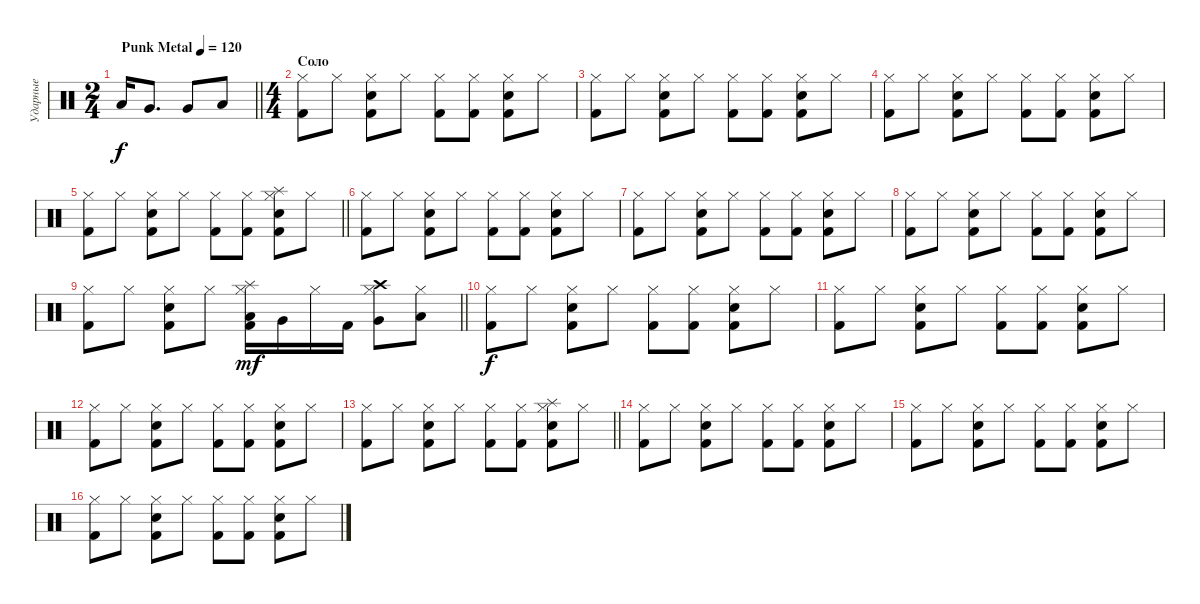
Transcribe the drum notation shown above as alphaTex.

\track ("Ударные" "Ударные") {instrument percussion}
\staff {score}
\articulation defaults
\ts (2 4)
\tempo (120 "Punk Metal")
\clef neutral
\barLineRight lightlight
\ks c "Low Tom (hit)".16{dy f} "Very Low Tom (hit)".8{d} "Very Low Tom (hit)".8 "Low Floor Tom (hit)".8
|
\ts (4 4)
\section ("" "Соло")
("Hi-Hat (closed)" "Kick (hit) 2").8 "Hi-Hat (closed)".8 ("Hi-Hat (closed)" "Kick (hit) 2" "Electric Snare (hit)").8 "Hi-Hat (closed)".8 ("Hi-Hat (closed)" "Kick (hit) 2").8 ("Hi-Hat (closed)" "Kick (hit) 2").8 ("Hi-Hat (closed)" "Kick (hit) 2" "Electric Snare (hit)").8 "Hi-Hat (closed)".8 |
("Hi-Hat (closed)" "Kick (hit) 2").8 "Hi-Hat (closed)".8 ("Hi-Hat (closed)" "Kick (hit) 2" "Electric Snare (hit)").8 "Hi-Hat (closed)".8 ("Hi-Hat (closed)" "Kick (hit) 2").8 ("Hi-Hat (closed)" "Kick (hit) 2").8 ("Hi-Hat (closed)" "Kick (hit) 2" "Electric Snare (hit)").8 "Hi-Hat (closed)".8 |
("Hi-Hat (closed)" "Kick (hit) 2").8 "Hi-Hat (closed)".8 ("Hi-Hat (closed)" "Kick (hit) 2" "Electric Snare (hit)").8 "Hi-Hat (closed)".8 ("Hi-Hat (closed)" "Kick (hit) 2").8 ("Hi-Hat (closed)" "Kick (hit) 2").8 ("Hi-Hat (closed)" "Kick (hit) 2" "Electric Snare (hit)").8 "Hi-Hat (closed)".8 |
\barLineRight lightlight
("Hi-Hat (closed)" "Kick (hit) 2").8 "Hi-Hat (closed)".8 ("Hi-Hat (closed)" "Kick (hit) 2" "Electric Snare (hit)").8 "Hi-Hat (closed)".8 ("Hi-Hat (closed)" "Kick (hit) 2").8 ("Hi-Hat (closed)" "Kick (hit) 2").8 ("Hi-Hat (closed)" "Kick (hit) 2" "Electric Snare (hit)" "Splash (hit)").8 "Hi-Hat (closed)".8 |
("Hi-Hat (closed)" "Kick (hit) 2").8 "Hi-Hat (closed)".8 ("Hi-Hat (closed)" "Kick (hit) 2" "Electric Snare (hit)").8 "Hi-Hat (closed)".8 ("Hi-Hat (closed)" "Kick (hit) 2").8 ("Hi-Hat (closed)" "Kick (hit) 2").8 ("Hi-Hat (closed)" "Kick (hit) 2" "Electric Snare (hit)").8 "Hi-Hat (closed)".8 |
("Hi-Hat (closed)" "Kick (hit) 2").8 "Hi-Hat (closed)".8 ("Hi-Hat (closed)" "Kick (hit) 2" "Electric Snare (hit)").8 "Hi-Hat (closed)".8 ("Hi-Hat (closed)" "Kick (hit) 2").8 ("Hi-Hat (closed)" "Kick (hit) 2").8 ("Hi-Hat (closed)" "Kick (hit) 2" "Electric Snare (hit)").8 "Hi-Hat (closed)".8 |
("Hi-Hat (closed)" "Kick (hit) 2").8 "Hi-Hat (closed)".8 ("Hi-Hat (closed)" "Kick (hit) 2" "Electric Snare (hit)").8 "Hi-Hat (closed)".8 ("Hi-Hat (closed)" "Kick (hit) 2").8 ("Hi-Hat (closed)" "Kick (hit) 2").8 ("Hi-Hat (closed)" "Kick (hit) 2" "Electric Snare (hit)").8 "Hi-Hat (closed)".8 |
\barLineRight lightlight
("Hi-Hat (closed)" "Kick (hit) 2").8 "Hi-Hat (closed)".8 ("Hi-Hat (closed)" "Kick (hit) 2" "Electric Snare (hit)").8 "Hi-Hat (closed)".8 ("Low Tom (hit)" "Hi-Hat (closed)" "Kick (hit) 2" "Splash (hit)").16{dy mf} "Very Low Tom (hit)".16 "Hi-Hat (closed)".16 "Kick (hit) 2".16 ("Very Low Tom (hit)" "Hi-Hat (closed)" "Crash high (hit)").8 ("Low Floor Tom (hit)" "Hi-Hat (closed)").8 |
("Hi-Hat (closed)" "Kick (hit) 2").8{dy f} "Hi-Hat (closed)".8 ("Hi-Hat (closed)" "Kick (hit) 2" "Electric Snare (hit)").8 "Hi-Hat (closed)".8 ("Hi-Hat (closed)" "Kick (hit) 2").8 ("Hi-Hat (closed)" "Kick (hit) 2").8 ("Hi-Hat (closed)" "Kick (hit) 2" "Electric Snare (hit)").8 "Hi-Hat (closed)".8 |
("Hi-Hat (closed)" "Kick (hit) 2").8 "Hi-Hat (closed)".8 ("Hi-Hat (closed)" "Kick (hit) 2" "Electric Snare (hit)").8 "Hi-Hat (closed)".8 ("Hi-Hat (closed)" "Kick (hit) 2").8 ("Hi-Hat (closed)" "Kick (hit) 2").8 ("Hi-Hat (closed)" "Kick (hit) 2" "Electric Snare (hit)").8 "Hi-Hat (closed)".8 |
("Hi-Hat (closed)" "Kick (hit) 2").8 "Hi-Hat (closed)".8 ("Hi-Hat (closed)" "Kick (hit) 2" "Electric Snare (hit)").8 "Hi-Hat (closed)".8 ("Hi-Hat (closed)" "Kick (hit) 2").8 ("Hi-Hat (closed)" "Kick (hit) 2").8 ("Hi-Hat (closed)" "Kick (hit) 2" "Electric Snare (hit)").8 "Hi-Hat (closed)".8 |
\barLineRight lightlight
("Hi-Hat (closed)" "Kick (hit) 2").8 "Hi-Hat (closed)".8 ("Hi-Hat (closed)" "Kick (hit) 2" "Electric Snare (hit)").8 "Hi-Hat (closed)".8 ("Hi-Hat (closed)" "Kick (hit) 2").8 ("Hi-Hat (closed)" "Kick (hit) 2").8 ("Hi-Hat (closed)" "Kick (hit) 2" "Electric Snare (hit)" "Splash (hit)").8 "Hi-Hat (closed)".8 |
("Hi-Hat (closed)" "Kick (hit) 2").8 "Hi-Hat (closed)".8 ("Hi-Hat (closed)" "Kick (hit) 2" "Electric Snare (hit)").8 "Hi-Hat (closed)".8 ("Hi-Hat (closed)" "Kick (hit) 2").8 ("Hi-Hat (closed)" "Kick (hit) 2").8 ("Hi-Hat (closed)" "Kick (hit) 2" "Electric Snare (hit)").8 "Hi-Hat (closed)".8 |
("Hi-Hat (closed)" "Kick (hit) 2").8 "Hi-Hat (closed)".8 ("Hi-Hat (closed)" "Kick (hit) 2" "Electric Snare (hit)").8 "Hi-Hat (closed)".8 ("Hi-Hat (closed)" "Kick (hit) 2").8 ("Hi-Hat (closed)" "Kick (hit) 2").8 ("Hi-Hat (closed)" "Kick (hit) 2" "Electric Snare (hit)").8 "Hi-Hat (closed)".8 |
("Hi-Hat (closed)" "Kick (hit) 2").8 "Hi-Hat (closed)".8 ("Hi-Hat (closed)" "Kick (hit) 2" "Electric Snare (hit)").8 "Hi-Hat (closed)".8 ("Hi-Hat (closed)" "Kick (hit) 2").8 ("Hi-Hat (closed)" "Kick (hit) 2").8 ("Hi-Hat (closed)" "Kick (hit) 2" "Electric Snare (hit)").8 "Hi-Hat (closed)".8
